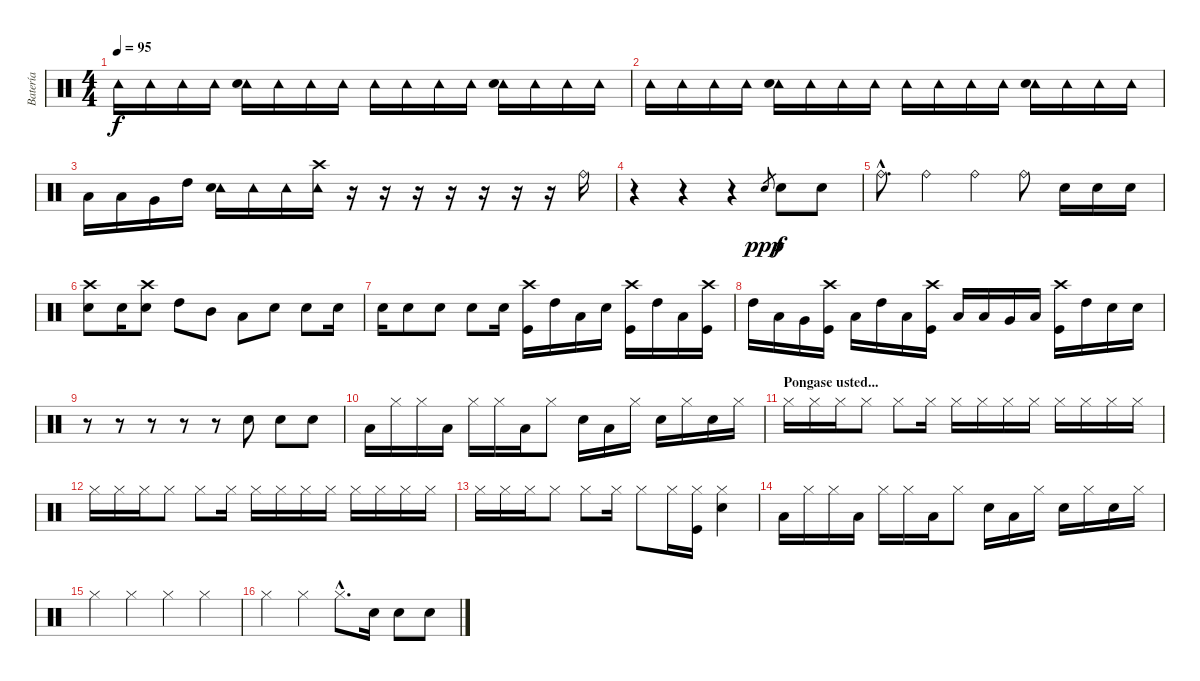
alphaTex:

\track ("Batería" "Batería") {instrument percussion}
\staff {score}
\articulation defaults
\ts (4 4)
\tempo 95
\clef neutral
\ks c "Tambourine (hit)".16{dy f} "Tambourine (hit)".16 "Tambourine (hit)".16 "Tambourine (hit)".16
("Tambourine (hit)" "Snare (hit) 2").16 "Tambourine (hit)".16 "Tambourine (hit)".16 "Tambourine (hit)".16 "Tambourine (hit)".16 "Tambourine (hit)".16 "Tambourine (hit)".16 "Tambourine (hit)".16 ("Tambourine (hit)" "Snare (hit) 2").16 "Tambourine (hit)".16 "Tambourine (hit)".16 "Tambourine (hit)".16 |
"Tambourine (hit)".16 "Tambourine (hit)".16 "Tambourine (hit)".16 "Tambourine (hit)".16 ("Tambourine (hit)" "Snare (hit) 2").16 "Tambourine (hit)".16 "Tambourine (hit)".16 "Tambourine (hit)".16 "Tambourine (hit)".16 "Tambourine (hit)".16 "Tambourine (hit)".16 "Tambourine (hit)".16 ("Tambourine (hit)" "Snare (hit) 2").16 "Tambourine (hit)".16 "Tambourine (hit)".16 "Tambourine (hit)".16 |
"Low Floor Tom (hit)".16 "Low Tom (hit)".16 "Very Low Tom (hit)".16 "High Tom (hit)".16 ("Tambourine (hit)" "Snare (hit) 2").16 "Tambourine (hit)".16 "Tambourine (hit)".16 ("Tambourine (hit)" "Crash high (hit)").16 r.16 r.16 r.16 r.16 r.16 r.16 r.16 "Ride (bell)".16 |
r.4 r.4 r.4 "Snare (hit) 2".8{gr dy ppp} "Snare (hit) 2".8{dy f} "Snare (hit) 2".8 |
"Ride (bell)"{hac}.8{d} "Ride (bell)".4 "Ride (bell)".4 "Ride (bell)".8 "Snare (hit) 2".16 "Snare (hit) 2".16 "Snare (hit) 2".16 |
("Snare (hit) 2" "Crash high (hit)").8 "Snare (hit) 2".16 ("Snare (hit) 2" "Crash high (hit)").8 "High Tom (hit)".8 "Mid Tom (hit)".8 "Low Tom (hit)".8 "Snare (hit) 2".8 "Snare (hit) 2".8 "Snare (hit) 2".16 |
"Snare (hit) 2".16 "Snare (hit) 2".8 "Snare (hit) 2".8 "Snare (hit) 2".8 "Snare (hit) 2".16 ("Crash high (hit)" "Kick (hit)").16 "High Tom (hit)".16 "Low Floor Tom (hit)".16 "Snare (hit) 2".16 ("Crash high (hit)" "Kick (hit)").16 "High Tom (hit)".16 "Low Tom (hit)".16 ("Kick (hit)" "Crash high (hit)").16 |
"High Tom (hit)".16 "Low Tom (hit)".16 "Very Low Tom (hit)".16 ("Crash high (hit)" "Kick (hit)").16 "Low Floor Tom (hit)".16 "High Tom (hit)".16 "Low Tom (hit)".16 ("Crash high (hit)" "Kick (hit)").16 "Low Floor Tom (hit)".16 "Low Tom (hit)".16 "Very Low Tom (hit)".16 "Low Floor Tom (hit)".16 ("Kick (hit)" "Crash high (hit)").16 "High Tom (hit)".16 "Snare (hit) 2".16 "Snare (hit) 2".16 |
r.8 r.8 r.8 r.8 r.8 "Snare (hit) 2".8 "Snare (hit) 2".8 "Snare (hit) 2".8 |
"Low Floor Tom (hit)".16 "Hi-Hat (closed)".16 "Hi-Hat (closed)".16 "Low Floor Tom (hit)".16 "Hi-Hat (closed)".16 "Hi-Hat (closed)".16 "Low Floor Tom (hit)".16 "Hi-Hat (closed)".8 "Snare (hit) 2".16 "Low Floor Tom (hit)".16 "Hi-Hat (closed)".16 "Snare (hit) 2".16 "Hi-Hat (closed)".16 "Snare (hit) 2".16 "Hi-Hat (closed)".16 |
\section ("" "Pongase usted...")
"Hi-Hat (closed)".16 "Hi-Hat (closed)".16 "Hi-Hat (closed)".16 "Hi-Hat (closed)".8 "Hi-Hat (closed)".8 "Hi-Hat (closed)".16 "Hi-Hat (closed)".16 "Hi-Hat (closed)".16 "Hi-Hat (closed)".16 "Hi-Hat (closed)".16 "Hi-Hat (closed)".16 "Hi-Hat (closed)".16 "Hi-Hat (closed)".16 "Hi-Hat (closed)".16 |
"Hi-Hat (closed)".16 "Hi-Hat (closed)".16 "Hi-Hat (closed)".16 "Hi-Hat (closed)".8 "Hi-Hat (closed)".8 "Hi-Hat (closed)".16 "Hi-Hat (closed)".16 "Hi-Hat (closed)".16 "Hi-Hat (closed)".16 "Hi-Hat (closed)".16 "Hi-Hat (closed)".16 "Hi-Hat (closed)".16 "Hi-Hat (closed)".16 "Hi-Hat (closed)".16 |
"Hi-Hat (closed)".16 "Hi-Hat (closed)".16 "Hi-Hat (closed)".16 "Hi-Hat (closed)".8 "Hi-Hat (closed)".8 "Hi-Hat (closed)".16 "Hi-Hat (closed)".8 "Hi-Hat (closed)".16 ("Hi-Hat (closed)" "Kick (hit)").16 ("Hi-Hat (closed)" "Snare (hit) 2").4 |
"Low Floor Tom (hit)".16 "Hi-Hat (closed)".16 "Hi-Hat (closed)".16 "Low Floor Tom (hit)".16 "Hi-Hat (closed)".16 "Hi-Hat (closed)".16 "Low Floor Tom (hit)".16 "Hi-Hat (closed)".8 "Snare (hit) 2".16 "Low Floor Tom (hit)".16 "Hi-Hat (closed)".16 "Snare (hit) 2".16 "Hi-Hat (closed)".16 "Snare (hit) 2".16 "Hi-Hat (closed)".16 |
"Hi-Hat (closed)".4 "Hi-Hat (closed)".4 "Hi-Hat (closed)".4 "Hi-Hat (closed)".4 |
"Hi-Hat (closed)".4 "Hi-Hat (closed)".4 "Hi-Hat (closed)"{hac}.8{d} "Snare (hit) 2".16 "Snare (hit) 2".8 "Snare (hit) 2".8
